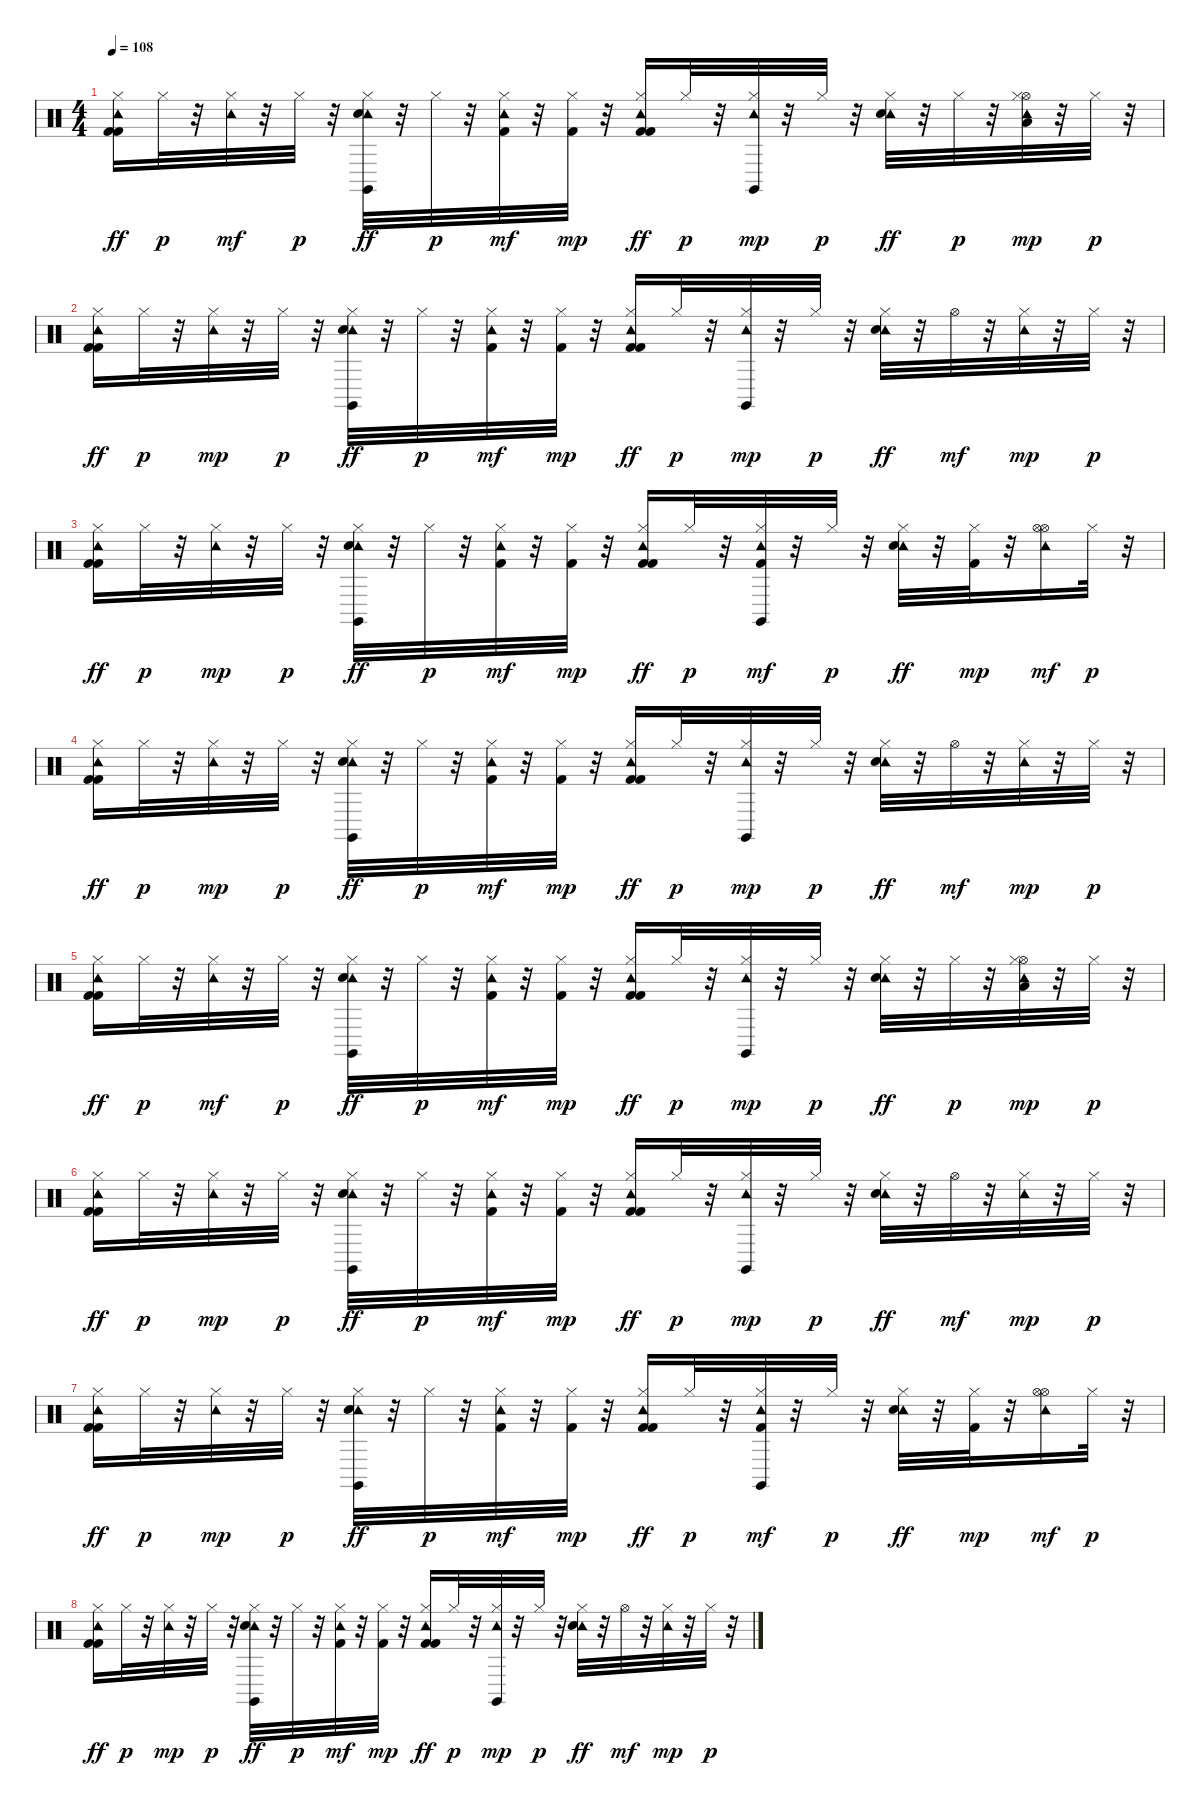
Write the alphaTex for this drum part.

\track "" {instrument percussion}
\staff {score}
\articulation defaults
\ts (4 4)
\tempo 108
\clef neutral
\ks c
("Tambourine (hit)" "Kick (hit) 2" "Hi-Hat (closed)" "Kick (hit) 2").16{dy ff} "Hi-Hat (closed)".32{dy p} r.32 ("Tambourine (hit)" "Hi-Hat (closed)").32{dy mf} r.32 "Hi-Hat (closed)".32{dy p} r.32 ("Tambourine (hit)" "Claves (hit)" "Hi-Hat (closed)" "Snare (hit) 2").32{dy ff} r.32 "Hi-Hat (closed)".32{dy p} r.32 ("Kick (hit) 2" "Tambourine (hit)" "Hi-Hat (closed)").32{dy mf} r.32 ("Hi-Hat (closed)" "Kick (hit) 2").32{dy mp} r.32 ("Tambourine (hit)" "Kick (hit) 2" "Hi-Hat (closed)" "Kick (hit) 2").16{dy ff} "Hi-Hat (closed)".32{dy p} r.32 ("Tambourine (hit)" "Claves (hit)" "Hi-Hat (closed)").32{dy mp} r.32 "Hi-Hat (closed)".32{dy p} r.32 ("Tambourine (hit)" "Hi-Hat (closed)" "Snare (hit) 2").32{dy ff} r.32 "Hi-Hat (closed)".32{dy p} r.32 ("Tambourine (hit)" "Hi-Hat (open)" "Low Tom (hit)" "Hi-Hat (closed)").32{dy mp} r.32 "Hi-Hat (closed)".32{dy p} r.32 |
("Kick (hit) 2" "Tambourine (hit)" "Hi-Hat (closed)" "Kick (hit) 2").16{dy ff} "Hi-Hat (closed)".32{dy p} r.32 ("Hi-Hat (closed)" "Tambourine (hit)").32{dy mp} r.32 "Hi-Hat (closed)".32{dy p} r.32 ("Tambourine (hit)" "Claves (hit)" "Hi-Hat (closed)" "Snare (hit) 2").32{dy ff} r.32 "Hi-Hat (closed)".32{dy p} r.32 ("Tambourine (hit)" "Kick (hit) 2" "Hi-Hat (closed)").32{dy mf} r.32 ("Hi-Hat (closed)" "Kick (hit) 2").32{dy mp} r.32 ("Kick (hit) 2" "Tambourine (hit)" "Hi-Hat (closed)" "Kick (hit) 2").16{dy ff} "Hi-Hat (closed)".32{dy p} r.32 ("Tambourine (hit)" "Claves (hit)" "Hi-Hat (closed)").32{dy mp} r.32 "Hi-Hat (closed)".32{dy p} r.32 ("Tambourine (hit)" "Hi-Hat (closed)" "Snare (hit) 2").32{dy ff} r.32 "Hi-Hat (open)".32{dy mf} r.32 ("Tambourine (hit)" "Hi-Hat (closed)").32{dy mp} r.32 "Hi-Hat (closed)".32{dy p} r.32 |
("Kick (hit) 2" "Tambourine (hit)" "Hi-Hat (closed)" "Kick (hit) 2").16{dy ff} "Hi-Hat (closed)".32{dy p} r.32 ("Tambourine (hit)" "Hi-Hat (closed)").32{dy mp} r.32 "Hi-Hat (closed)".32{dy p} r.32 ("Tambourine (hit)" "Claves (hit)" "Hi-Hat (closed)" "Snare (hit) 2").32{dy ff} r.32 "Hi-Hat (closed)".32{dy p} r.32 ("Tambourine (hit)" "Kick (hit) 2" "Hi-Hat (closed)").32{dy mf} r.32 ("Hi-Hat (closed)" "Kick (hit) 2").32{dy mp} r.32 ("Kick (hit) 2" "Tambourine (hit)" "Hi-Hat (closed)" "Kick (hit) 2").16{dy ff} "Hi-Hat (closed)".32{dy p} r.32 ("Tambourine (hit)" "Claves (hit)" "Kick (hit) 2" "Hi-Hat (closed)").32{dy mf} r.32 "Hi-Hat (closed)".32{dy p} r.32 ("Tambourine (hit)" "Hi-Hat (closed)" "Snare (hit) 2").32{dy ff} r.32 ("Hi-Hat (closed)" "Kick (hit) 2").32{dy mp} r.32 ("Tambourine (hit)" "Hi-Hat (open)" "Hi-Hat (open)").16{dy mf} "Hi-Hat (closed)".32{dy p} r.32 |
("Tambourine (hit)" "Kick (hit) 2" "Hi-Hat (closed)" "Kick (hit) 2").16{dy ff} "Hi-Hat (closed)".32{dy p} r.32 ("Tambourine (hit)" "Hi-Hat (closed)").32{dy mp} r.32 "Hi-Hat (closed)".32{dy p} r.32 ("Tambourine (hit)" "Claves (hit)" "Hi-Hat (closed)" "Snare (hit) 2").32{dy ff} r.32 "Hi-Hat (closed)".32{dy p} r.32 ("Kick (hit) 2" "Tambourine (hit)" "Hi-Hat (closed)").32{dy mf} r.32 ("Hi-Hat (closed)" "Kick (hit) 2").32{dy mp} r.32 ("Tambourine (hit)" "Kick (hit) 2" "Hi-Hat (closed)" "Kick (hit) 2").16{dy ff} "Hi-Hat (closed)".32{dy p} r.32 ("Tambourine (hit)" "Claves (hit)" "Hi-Hat (closed)").32{dy mp} r.32 "Hi-Hat (closed)".32{dy p} r.32 ("Tambourine (hit)" "Hi-Hat (closed)" "Snare (hit) 2").32{dy ff} r.32 "Hi-Hat (open)".32{dy mf} r.32 ("Tambourine (hit)" "Hi-Hat (closed)").32{dy mp} r.32 "Hi-Hat (closed)".32{dy p} r.32 |
("Tambourine (hit)" "Kick (hit) 2" "Hi-Hat (closed)" "Kick (hit) 2").16{dy ff} "Hi-Hat (closed)".32{dy p} r.32 ("Tambourine (hit)" "Hi-Hat (closed)").32{dy mf} r.32 "Hi-Hat (closed)".32{dy p} r.32 ("Tambourine (hit)" "Claves (hit)" "Hi-Hat (closed)" "Snare (hit) 2").32{dy ff} r.32 "Hi-Hat (closed)".32{dy p} r.32 ("Kick (hit) 2" "Tambourine (hit)" "Hi-Hat (closed)").32{dy mf} r.32 ("Hi-Hat (closed)" "Kick (hit) 2").32{dy mp} r.32 ("Kick (hit) 2" "Tambourine (hit)" "Hi-Hat (closed)" "Kick (hit) 2").16{dy ff} "Hi-Hat (closed)".32{dy p} r.32 ("Tambourine (hit)" "Claves (hit)" "Hi-Hat (closed)").32{dy mp} r.32 "Hi-Hat (closed)".32{dy p} r.32 ("Tambourine (hit)" "Hi-Hat (closed)" "Snare (hit) 2").32{dy ff} r.32 "Hi-Hat (closed)".32{dy p} r.32 ("Tambourine (hit)" "Hi-Hat (open)" "Low Tom (hit)" "Hi-Hat (closed)").32{dy mp} r.32 "Hi-Hat (closed)".32{dy p} r.32 |
("Tambourine (hit)" "Kick (hit) 2" "Hi-Hat (closed)" "Kick (hit) 2").16{dy ff} "Hi-Hat (closed)".32{dy p} r.32 ("Hi-Hat (closed)" "Tambourine (hit)").32{dy mp} r.32 "Hi-Hat (closed)".32{dy p} r.32 ("Tambourine (hit)" "Claves (hit)" "Hi-Hat (closed)" "Snare (hit) 2").32{dy ff} r.32 "Hi-Hat (closed)".32{dy p} r.32 ("Tambourine (hit)" "Kick (hit) 2" "Hi-Hat (closed)").32{dy mf} r.32 ("Hi-Hat (closed)" "Kick (hit) 2").32{dy mp} r.32 ("Kick (hit) 2" "Tambourine (hit)" "Hi-Hat (closed)" "Kick (hit) 2").16{dy ff} "Hi-Hat (closed)".32{dy p} r.32 ("Tambourine (hit)" "Claves (hit)" "Hi-Hat (closed)").32{dy mp} r.32 "Hi-Hat (closed)".32{dy p} r.32 ("Tambourine (hit)" "Hi-Hat (closed)" "Snare (hit) 2").32{dy ff} r.32 "Hi-Hat (open)".32{dy mf} r.32 ("Tambourine (hit)" "Hi-Hat (closed)").32{dy mp} r.32 "Hi-Hat (closed)".32{dy p} r.32 |
("Kick (hit) 2" "Tambourine (hit)" "Hi-Hat (closed)" "Kick (hit) 2").16{dy ff} "Hi-Hat (closed)".32{dy p} r.32 ("Tambourine (hit)" "Hi-Hat (closed)").32{dy mp} r.32 "Hi-Hat (closed)".32{dy p} r.32 ("Tambourine (hit)" "Claves (hit)" "Hi-Hat (closed)" "Snare (hit) 2").32{dy ff} r.32 "Hi-Hat (closed)".32{dy p} r.32 ("Tambourine (hit)" "Kick (hit) 2" "Hi-Hat (closed)").32{dy mf} r.32 ("Hi-Hat (closed)" "Kick (hit) 2").32{dy mp} r.32 ("Tambourine (hit)" "Kick (hit) 2" "Hi-Hat (closed)" "Kick (hit) 2").16{dy ff} "Hi-Hat (closed)".32{dy p} r.32 ("Kick (hit) 2" "Tambourine (hit)" "Claves (hit)" "Hi-Hat (closed)").32{dy mf} r.32 "Hi-Hat (closed)".32{dy p} r.32 ("Tambourine (hit)" "Hi-Hat (closed)" "Snare (hit) 2").32{dy ff} r.32 ("Hi-Hat (closed)" "Kick (hit) 2").32{dy mp} r.32 ("Tambourine (hit)" "Hi-Hat (open)" "Hi-Hat (open)").16{dy mf} "Hi-Hat (closed)".32{dy p} r.32 |
("Kick (hit) 2" "Tambourine (hit)" "Hi-Hat (closed)" "Kick (hit) 2").16{dy ff} "Hi-Hat (closed)".32{dy p} r.32 ("Hi-Hat (closed)" "Tambourine (hit)").32{dy mp} r.32 "Hi-Hat (closed)".32{dy p} r.32 ("Tambourine (hit)" "Claves (hit)" "Hi-Hat (closed)" "Snare (hit) 2").32{dy ff} r.32 "Hi-Hat (closed)".32{dy p} r.32 ("Kick (hit) 2" "Tambourine (hit)" "Hi-Hat (closed)").32{dy mf} r.32 ("Hi-Hat (closed)" "Kick (hit) 2").32{dy mp} r.32 ("Kick (hit) 2" "Tambourine (hit)" "Hi-Hat (closed)" "Kick (hit) 2").16{dy ff} "Hi-Hat (closed)".32{dy p} r.32 ("Tambourine (hit)" "Claves (hit)" "Hi-Hat (closed)").32{dy mp} r.32 "Hi-Hat (closed)".32{dy p} r.32 ("Tambourine (hit)" "Hi-Hat (closed)" "Snare (hit) 2").32{dy ff} r.32 "Hi-Hat (open)".32{dy mf} r.32 ("Tambourine (hit)" "Hi-Hat (closed)").32{dy mp} r.32 "Hi-Hat (closed)".32{dy p} r.32
